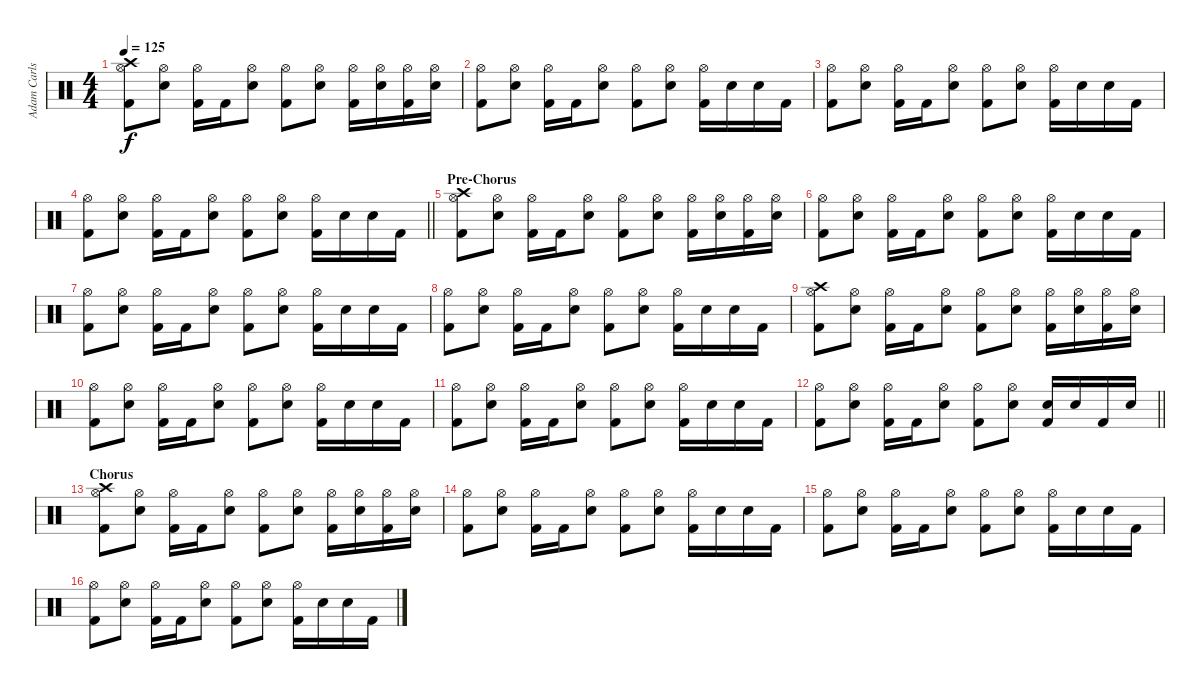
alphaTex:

\track ("Adam Carlson" "Adam Carls") {instrument percussion}
\staff {score}
\articulation defaults
\ts (4 4)
\tempo 125
\clef neutral
\ks c
("Crash high (hit)" "Hi-Hat (open)" "Kick (hit) 2").8{dy f} ("Hi-Hat (open)" "Electric Snare (hit)").8 ("Hi-Hat (open)" "Kick (hit) 2").16 "Kick (hit) 2".16 ("Hi-Hat (open)" "Electric Snare (hit)").8 ("Hi-Hat (open)" "Kick (hit) 2").8 ("Hi-Hat (open)" "Electric Snare (hit)").8 ("Hi-Hat (open)" "Kick (hit) 2").16 ("Hi-Hat (open)" "Electric Snare (hit)").16 ("Hi-Hat (open)" "Kick (hit) 2").16 ("Electric Snare (hit)" "Hi-Hat (open)").16 |
("Hi-Hat (open)" "Kick (hit) 2").8 ("Hi-Hat (open)" "Electric Snare (hit)").8 ("Hi-Hat (open)" "Kick (hit) 2").16 "Kick (hit) 2".16 ("Hi-Hat (open)" "Electric Snare (hit)").8 ("Hi-Hat (open)" "Kick (hit) 2").8 ("Hi-Hat (open)" "Electric Snare (hit)").8 ("Hi-Hat (open)" "Kick (hit) 2").16 "Electric Snare (hit)".16 "Electric Snare (hit)".16 "Kick (hit) 2".16 |
("Hi-Hat (open)" "Kick (hit) 2").8 ("Hi-Hat (open)" "Electric Snare (hit)").8 ("Hi-Hat (open)" "Kick (hit) 2").16 "Kick (hit) 2".16 ("Hi-Hat (open)" "Electric Snare (hit)").8 ("Hi-Hat (open)" "Kick (hit) 2").8 ("Hi-Hat (open)" "Electric Snare (hit)").8 ("Hi-Hat (open)" "Kick (hit) 2").16 "Electric Snare (hit)".16 "Electric Snare (hit)".16 "Kick (hit) 2".16 |
\barLineRight lightlight
("Hi-Hat (open)" "Kick (hit) 2").8 ("Hi-Hat (open)" "Electric Snare (hit)").8 ("Hi-Hat (open)" "Kick (hit) 2").16 "Kick (hit) 2".16 ("Hi-Hat (open)" "Electric Snare (hit)").8 ("Hi-Hat (open)" "Kick (hit) 2").8 ("Hi-Hat (open)" "Electric Snare (hit)").8 ("Hi-Hat (open)" "Kick (hit) 2").16 "Electric Snare (hit)".16 "Electric Snare (hit)".16 "Kick (hit) 2".16 |
\section ("" "Pre-Chorus")
("Crash high (hit)" "Hi-Hat (open)" "Kick (hit) 2").8 ("Hi-Hat (open)" "Electric Snare (hit)").8 ("Hi-Hat (open)" "Kick (hit) 2").16 "Kick (hit) 2".16 ("Hi-Hat (open)" "Electric Snare (hit)").8 ("Hi-Hat (open)" "Kick (hit) 2").8 ("Hi-Hat (open)" "Electric Snare (hit)").8 ("Hi-Hat (open)" "Kick (hit) 2").16 ("Hi-Hat (open)" "Electric Snare (hit)").16 ("Hi-Hat (open)" "Kick (hit) 2").16 ("Electric Snare (hit)" "Hi-Hat (open)").16 |
("Hi-Hat (open)" "Kick (hit) 2").8 ("Hi-Hat (open)" "Electric Snare (hit)").8 ("Hi-Hat (open)" "Kick (hit) 2").16 "Kick (hit) 2".16 ("Hi-Hat (open)" "Electric Snare (hit)").8 ("Hi-Hat (open)" "Kick (hit) 2").8 ("Hi-Hat (open)" "Electric Snare (hit)").8 ("Hi-Hat (open)" "Kick (hit) 2").16 "Electric Snare (hit)".16 "Electric Snare (hit)".16 "Kick (hit) 2".16 |
("Hi-Hat (open)" "Kick (hit) 2").8 ("Hi-Hat (open)" "Electric Snare (hit)").8 ("Hi-Hat (open)" "Kick (hit) 2").16 "Kick (hit) 2".16 ("Hi-Hat (open)" "Electric Snare (hit)").8 ("Hi-Hat (open)" "Kick (hit) 2").8 ("Hi-Hat (open)" "Electric Snare (hit)").8 ("Hi-Hat (open)" "Kick (hit) 2").16 "Electric Snare (hit)".16 "Electric Snare (hit)".16 "Kick (hit) 2".16 |
("Hi-Hat (open)" "Kick (hit) 2").8 ("Hi-Hat (open)" "Electric Snare (hit)").8 ("Hi-Hat (open)" "Kick (hit) 2").16 "Kick (hit) 2".16 ("Hi-Hat (open)" "Electric Snare (hit)").8 ("Hi-Hat (open)" "Kick (hit) 2").8 ("Hi-Hat (open)" "Electric Snare (hit)").8 ("Hi-Hat (open)" "Kick (hit) 2").16 "Electric Snare (hit)".16 "Electric Snare (hit)".16 "Kick (hit) 2".16 |
("Crash high (hit)" "Hi-Hat (open)" "Kick (hit) 2").8 ("Hi-Hat (open)" "Electric Snare (hit)").8 ("Hi-Hat (open)" "Kick (hit) 2").16 "Kick (hit) 2".16 ("Hi-Hat (open)" "Electric Snare (hit)").8 ("Hi-Hat (open)" "Kick (hit) 2").8 ("Hi-Hat (open)" "Electric Snare (hit)").8 ("Hi-Hat (open)" "Kick (hit) 2").16 ("Hi-Hat (open)" "Electric Snare (hit)").16 ("Hi-Hat (open)" "Kick (hit) 2").16 ("Electric Snare (hit)" "Hi-Hat (open)").16 |
("Hi-Hat (open)" "Kick (hit) 2").8 ("Hi-Hat (open)" "Electric Snare (hit)").8 ("Hi-Hat (open)" "Kick (hit) 2").16 "Kick (hit) 2".16 ("Hi-Hat (open)" "Electric Snare (hit)").8 ("Hi-Hat (open)" "Kick (hit) 2").8 ("Hi-Hat (open)" "Electric Snare (hit)").8 ("Hi-Hat (open)" "Kick (hit) 2").16 "Electric Snare (hit)".16 "Electric Snare (hit)".16 "Kick (hit) 2".16 |
("Hi-Hat (open)" "Kick (hit) 2").8 ("Hi-Hat (open)" "Electric Snare (hit)").8 ("Hi-Hat (open)" "Kick (hit) 2").16 "Kick (hit) 2".16 ("Hi-Hat (open)" "Electric Snare (hit)").8 ("Hi-Hat (open)" "Kick (hit) 2").8 ("Hi-Hat (open)" "Electric Snare (hit)").8 ("Hi-Hat (open)" "Kick (hit) 2").16 "Electric Snare (hit)".16 "Electric Snare (hit)".16 "Kick (hit) 2".16 |
\barLineRight lightlight
("Hi-Hat (open)" "Kick (hit) 2").8 ("Hi-Hat (open)" "Electric Snare (hit)").8 ("Hi-Hat (open)" "Kick (hit) 2").16 "Kick (hit) 2".16 ("Hi-Hat (open)" "Electric Snare (hit)").8 ("Hi-Hat (open)" "Kick (hit) 2").8 ("Hi-Hat (open)" "Electric Snare (hit)").8 ("Electric Snare (hit)" "Kick (hit) 2").16 "Electric Snare (hit)".16 "Kick (hit) 2".16 "Electric Snare (hit)".16 |
\section ("" "Chorus")
("Crash high (hit)" "Hi-Hat (open)" "Kick (hit) 2").8 ("Hi-Hat (open)" "Electric Snare (hit)").8 ("Hi-Hat (open)" "Kick (hit) 2").16 "Kick (hit) 2".16 ("Hi-Hat (open)" "Electric Snare (hit)").8 ("Hi-Hat (open)" "Kick (hit) 2").8 ("Hi-Hat (open)" "Electric Snare (hit)").8 ("Hi-Hat (open)" "Kick (hit) 2").16 ("Hi-Hat (open)" "Electric Snare (hit)").16 ("Hi-Hat (open)" "Kick (hit) 2").16 ("Electric Snare (hit)" "Hi-Hat (open)").16 |
("Hi-Hat (open)" "Kick (hit) 2").8 ("Hi-Hat (open)" "Electric Snare (hit)").8 ("Hi-Hat (open)" "Kick (hit) 2").16 "Kick (hit) 2".16 ("Hi-Hat (open)" "Electric Snare (hit)").8 ("Hi-Hat (open)" "Kick (hit) 2").8 ("Hi-Hat (open)" "Electric Snare (hit)").8 ("Hi-Hat (open)" "Kick (hit) 2").16 "Electric Snare (hit)".16 "Electric Snare (hit)".16 "Kick (hit) 2".16 |
("Hi-Hat (open)" "Kick (hit) 2").8 ("Hi-Hat (open)" "Electric Snare (hit)").8 ("Hi-Hat (open)" "Kick (hit) 2").16 "Kick (hit) 2".16 ("Hi-Hat (open)" "Electric Snare (hit)").8 ("Hi-Hat (open)" "Kick (hit) 2").8 ("Hi-Hat (open)" "Electric Snare (hit)").8 ("Hi-Hat (open)" "Kick (hit) 2").16 "Electric Snare (hit)".16 "Electric Snare (hit)".16 "Kick (hit) 2".16 |
("Hi-Hat (open)" "Kick (hit) 2").8 ("Hi-Hat (open)" "Electric Snare (hit)").8 ("Hi-Hat (open)" "Kick (hit) 2").16 "Kick (hit) 2".16 ("Hi-Hat (open)" "Electric Snare (hit)").8 ("Hi-Hat (open)" "Kick (hit) 2").8 ("Hi-Hat (open)" "Electric Snare (hit)").8 ("Hi-Hat (open)" "Kick (hit) 2").16 "Electric Snare (hit)".16 "Electric Snare (hit)".16 "Kick (hit) 2".16
